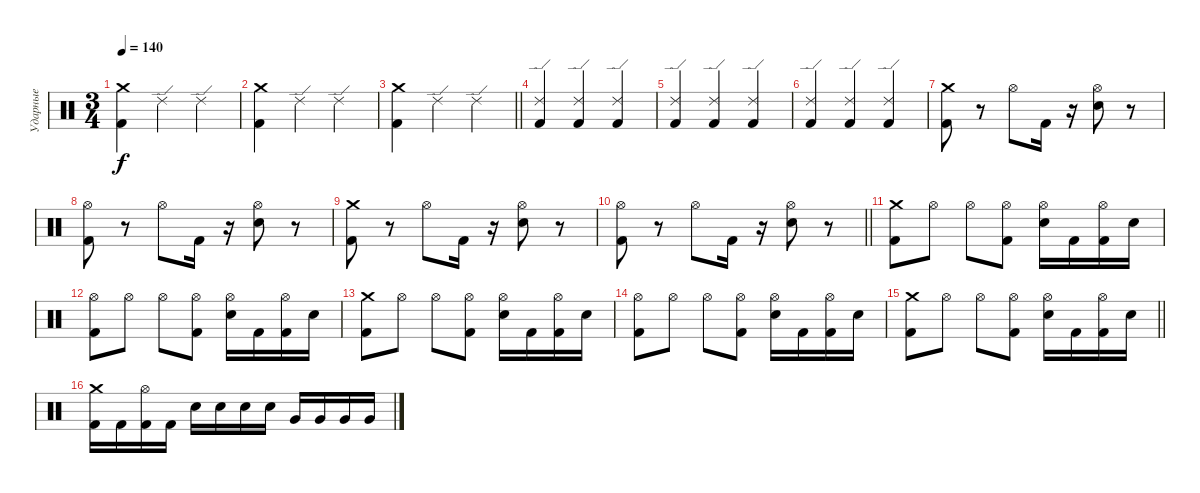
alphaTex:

\track ("Ударные" "Ударные") {instrument percussion}
\staff {score}
\articulation defaults
\ts (3 4)
\tempo 140
\clef neutral
\ks c
("Kick (hit) 2" "Crash medium (hit)").4{dy f} "Ride (edge) 2".4 "Ride (edge) 2".4 |
("Kick (hit) 2" "Crash medium (hit)").4 "Ride (edge) 2".4 "Ride (edge) 2".4 |
\barLineRight lightlight
("Kick (hit) 2" "Crash medium (hit)").4 "Ride (edge) 2".4 "Ride (edge) 2".4 |
("Kick (hit) 2" "Ride (edge) 2").4 ("Kick (hit) 2" "Ride (edge) 2").4 ("Kick (hit) 2" "Ride (edge) 2").4 |
("Kick (hit) 2" "Ride (edge) 2").4 ("Kick (hit) 2" "Ride (edge) 2").4 ("Kick (hit) 2" "Ride (edge) 2").4 |
("Kick (hit) 2" "Ride (edge) 2").4 ("Kick (hit) 2" "Ride (edge) 2").4 ("Kick (hit) 2" "Ride (edge) 2").4 |
("Kick (hit) 2" "Crash medium (hit)").8 r.8 "Hi-Hat (open)".8 "Kick (hit) 2".16 r.16 ("Electric Snare (hit)" "Hi-Hat (open)").8 r.8 |
("Kick (hit) 2" "Hi-Hat (open)").8 r.8 "Hi-Hat (open)".8 "Kick (hit) 2".16 r.16 ("Electric Snare (hit)" "Hi-Hat (open)").8 r.8 |
("Kick (hit) 2" "Crash medium (hit)").8 r.8 "Hi-Hat (open)".8 "Kick (hit) 2".16 r.16 ("Electric Snare (hit)" "Hi-Hat (open)").8 r.8 |
\barLineRight lightlight
("Kick (hit) 2" "Hi-Hat (open)").8 r.8 "Hi-Hat (open)".8 "Kick (hit) 2".16 r.16 ("Electric Snare (hit)" "Hi-Hat (open)").8 r.8 |
("Kick (hit) 2" "Crash medium (hit)").8 "Hi-Hat (open)".8 "Hi-Hat (open)".8 ("Kick (hit) 2" "Hi-Hat (open)").8 ("Electric Snare (hit)" "Hi-Hat (open)").16 "Kick (hit) 2".16 ("Kick (hit) 2" "Hi-Hat (open)").16 "Electric Snare (hit)".16 |
("Kick (hit) 2" "Hi-Hat (open)").8 "Hi-Hat (open)".8 "Hi-Hat (open)".8 ("Kick (hit) 2" "Hi-Hat (open)").8 ("Electric Snare (hit)" "Hi-Hat (open)").16 "Kick (hit) 2".16 ("Kick (hit) 2" "Hi-Hat (open)").16 "Electric Snare (hit)".16 |
("Kick (hit) 2" "Crash medium (hit)").8 "Hi-Hat (open)".8 "Hi-Hat (open)".8 ("Kick (hit) 2" "Hi-Hat (open)").8 ("Electric Snare (hit)" "Hi-Hat (open)").16 "Kick (hit) 2".16 ("Kick (hit) 2" "Hi-Hat (open)").16 "Electric Snare (hit)".16 |
("Kick (hit) 2" "Hi-Hat (open)").8 "Hi-Hat (open)".8 "Hi-Hat (open)".8 ("Kick (hit) 2" "Hi-Hat (open)").8 ("Electric Snare (hit)" "Hi-Hat (open)").16 "Kick (hit) 2".16 ("Kick (hit) 2" "Hi-Hat (open)").16 "Electric Snare (hit)".16 |
\barLineRight lightlight
("Kick (hit) 2" "Crash medium (hit)").8 "Hi-Hat (open)".8 "Hi-Hat (open)".8 ("Kick (hit) 2" "Hi-Hat (open)").8 ("Electric Snare (hit)" "Hi-Hat (open)").16 "Kick (hit) 2".16 ("Kick (hit) 2" "Hi-Hat (open)").16 "Electric Snare (hit)".16 |
("Kick (hit) 2" "Crash medium (hit)").16 "Kick (hit) 2".16 ("Kick (hit) 2" "Hi-Hat (open)").16 "Kick (hit) 2".16 "Electric Snare (hit)".16 "Electric Snare (hit)".16 "Electric Snare (hit)".16 "Electric Snare (hit)".16 "Very Low Tom (hit)".16 "Very Low Tom (hit)".16 "Very Low Tom (hit)".16 "Very Low Tom (hit)".16
